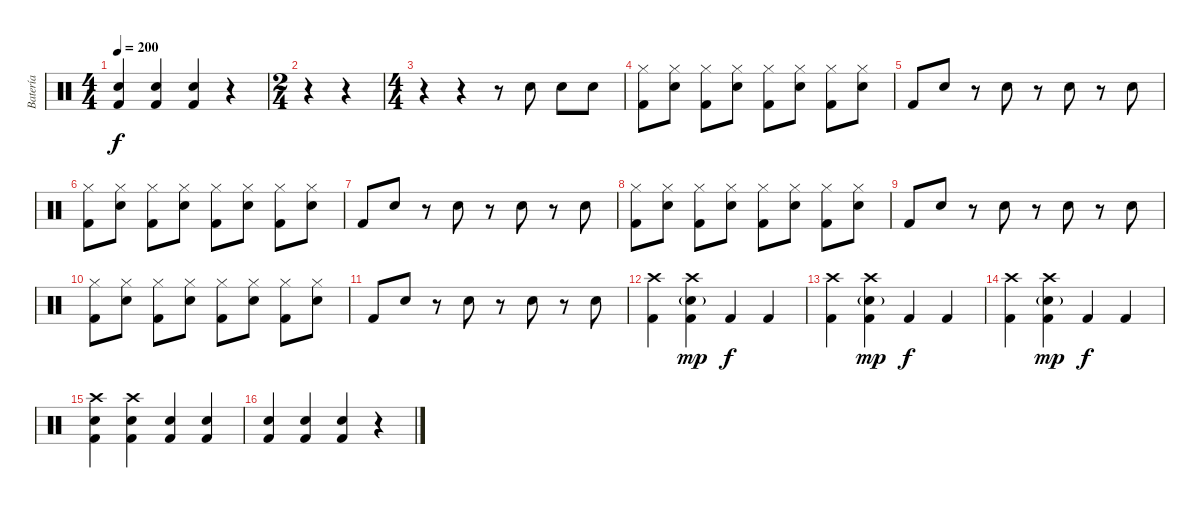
\track ("Batería" "Batería") {instrument percussion}
\staff {score}
\articulation defaults
\ts (4 4)
\tempo 200
\clef neutral
\ks c
("Snare (hit) 2" "Kick (hit) 2").4{dy f} ("Snare (hit) 2" "Kick (hit) 2").4 ("Snare (hit) 2" "Kick (hit) 2").4 r.4 |
\ts (2 4)
r.4 r.4 |
\ts (4 4)
r.4 r.4 r.8 "Snare (hit) 2".8 "Snare (hit) 2".8 "Snare (hit) 2".8 |
("Hi-Hat (closed)" "Kick (hit) 2").8 ("Hi-Hat (closed)" "Snare (hit) 2").8 ("Hi-Hat (closed)" "Kick (hit) 2").8 ("Hi-Hat (closed)" "Snare (hit) 2").8 ("Hi-Hat (closed)" "Kick (hit) 2").8 ("Hi-Hat (closed)" "Snare (hit) 2").8 ("Hi-Hat (closed)" "Kick (hit) 2").8 ("Hi-Hat (closed)" "Snare (hit) 2").8 |
"Kick (hit) 2".8 "Snare (hit) 2".8 r.8 "Snare (hit) 2".8 r.8 "Snare (hit) 2".8 r.8 "Snare (hit) 2".8 |
("Hi-Hat (closed)" "Kick (hit) 2").8 ("Hi-Hat (closed)" "Snare (hit) 2").8 ("Hi-Hat (closed)" "Kick (hit) 2").8 ("Hi-Hat (closed)" "Snare (hit) 2").8 ("Hi-Hat (closed)" "Kick (hit) 2").8 ("Hi-Hat (closed)" "Snare (hit) 2").8 ("Hi-Hat (closed)" "Kick (hit) 2").8 ("Hi-Hat (closed)" "Snare (hit) 2").8 |
"Kick (hit) 2".8 "Snare (hit) 2".8 r.8 "Snare (hit) 2".8 r.8 "Snare (hit) 2".8 r.8 "Snare (hit) 2".8 |
("Hi-Hat (closed)" "Kick (hit) 2").8 ("Hi-Hat (closed)" "Snare (hit) 2").8 ("Hi-Hat (closed)" "Kick (hit) 2").8 ("Hi-Hat (closed)" "Snare (hit) 2").8 ("Hi-Hat (closed)" "Kick (hit) 2").8 ("Hi-Hat (closed)" "Snare (hit) 2").8 ("Hi-Hat (closed)" "Kick (hit) 2").8 ("Hi-Hat (closed)" "Snare (hit) 2").8 |
"Kick (hit) 2".8 "Snare (hit) 2".8 r.8 "Snare (hit) 2".8 r.8 "Snare (hit) 2".8 r.8 "Snare (hit) 2".8 |
("Hi-Hat (closed)" "Kick (hit) 2").8 ("Hi-Hat (closed)" "Snare (hit) 2").8 ("Hi-Hat (closed)" "Kick (hit) 2").8 ("Hi-Hat (closed)" "Snare (hit) 2").8 ("Hi-Hat (closed)" "Kick (hit) 2").8 ("Hi-Hat (closed)" "Snare (hit) 2").8 ("Hi-Hat (closed)" "Kick (hit) 2").8 ("Hi-Hat (closed)" "Snare (hit) 2").8 |
"Kick (hit) 2".8 "Snare (hit) 2".8 r.8 "Snare (hit) 2".8 r.8 "Snare (hit) 2".8 r.8 "Snare (hit) 2".8 |
("Crash high (hit)" "Kick (hit) 2").4 ("Crash high (hit)" "Snare (hit) 2"{g} "Kick (hit) 2").4{dy mp} "Kick (hit) 2".4{dy f} "Kick (hit) 2".4 |
("Crash high (hit)" "Kick (hit) 2").4 ("Crash high (hit)" "Snare (hit) 2"{g} "Kick (hit) 2").4{dy mp} "Kick (hit) 2".4{dy f} "Kick (hit) 2".4 |
("Crash high (hit)" "Kick (hit) 2").4 ("Crash high (hit)" "Snare (hit) 2"{g} "Kick (hit) 2").4{dy mp} "Kick (hit) 2".4{dy f} "Kick (hit) 2".4 |
("Crash high (hit)" "Snare (hit) 2" "Kick (hit) 2").4 ("Crash high (hit)" "Snare (hit) 2" "Kick (hit) 2").4 ("Snare (hit) 2" "Kick (hit) 2").4 ("Snare (hit) 2" "Kick (hit) 2").4 |
("Snare (hit) 2" "Kick (hit) 2").4 ("Snare (hit) 2" "Kick (hit) 2").4 ("Snare (hit) 2" "Kick (hit) 2").4 r.4
